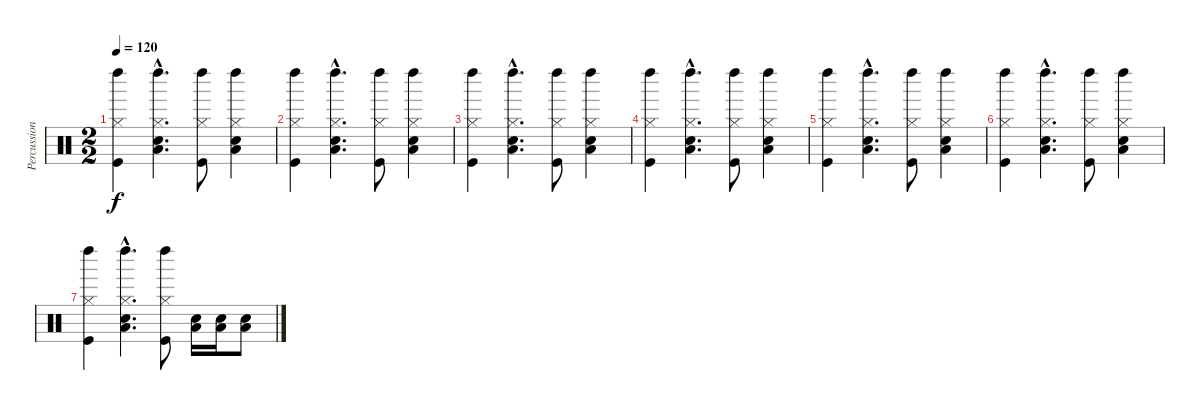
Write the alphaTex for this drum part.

\track ("Percussions" "Percussion") {instrument percussion}
\staff {score}
\articulation defaults
\ts (2 2)
\tempo 120
\clef neutral
\ks c
("Hi-Hat (closed)" "Left Maraca (hit)" "Kick (hit)").4{dy f} ("Hi-Hat (closed)"{hac} "Left Maraca (hit)"{hac} "Low Floor Tom (hit)"{hac} "Hand Clap (hit)"{hac}).4{d} ("Hi-Hat (closed)" "Left Maraca (hit)" "Kick (hit)").8 ("Hi-Hat (closed)" "Left Maraca (hit)" "Low Floor Tom (hit)" "Hand Clap (hit)").4 |
("Hi-Hat (closed)" "Left Maraca (hit)" "Kick (hit)").4 ("Hi-Hat (closed)"{hac} "Left Maraca (hit)"{hac} "Low Floor Tom (hit)"{hac} "Hand Clap (hit)"{hac}).4{d} ("Hi-Hat (closed)" "Left Maraca (hit)" "Kick (hit)").8 ("Hi-Hat (closed)" "Left Maraca (hit)" "Low Floor Tom (hit)" "Hand Clap (hit)").4 |
("Hi-Hat (closed)" "Left Maraca (hit)" "Kick (hit)").4 ("Hi-Hat (closed)"{hac} "Left Maraca (hit)"{hac} "Low Floor Tom (hit)"{hac} "Hand Clap (hit)"{hac}).4{d} ("Hi-Hat (closed)" "Left Maraca (hit)" "Kick (hit)").8 ("Hi-Hat (closed)" "Left Maraca (hit)" "Low Floor Tom (hit)" "Hand Clap (hit)").4 |
("Hi-Hat (closed)" "Left Maraca (hit)" "Kick (hit)").4 ("Hi-Hat (closed)"{hac} "Left Maraca (hit)"{hac} "Low Floor Tom (hit)"{hac} "Hand Clap (hit)"{hac}).4{d} ("Hi-Hat (closed)" "Left Maraca (hit)" "Kick (hit)").8 ("Hi-Hat (closed)" "Left Maraca (hit)" "Low Floor Tom (hit)" "Hand Clap (hit)").4 |
("Hi-Hat (closed)" "Left Maraca (hit)" "Kick (hit)").4 ("Hi-Hat (closed)"{hac} "Left Maraca (hit)"{hac} "Low Floor Tom (hit)"{hac} "Hand Clap (hit)"{hac}).4{d} ("Hi-Hat (closed)" "Left Maraca (hit)" "Kick (hit)").8 ("Hi-Hat (closed)" "Left Maraca (hit)" "Low Floor Tom (hit)" "Hand Clap (hit)").4 |
("Hi-Hat (closed)" "Left Maraca (hit)" "Kick (hit)").4 ("Hi-Hat (closed)"{hac} "Left Maraca (hit)"{hac} "Low Floor Tom (hit)"{hac} "Hand Clap (hit)"{hac}).4{d} ("Hi-Hat (closed)" "Left Maraca (hit)" "Kick (hit)").8 ("Hi-Hat (closed)" "Left Maraca (hit)" "Low Floor Tom (hit)" "Hand Clap (hit)").4 |
("Hi-Hat (closed)" "Left Maraca (hit)" "Kick (hit)").4 ("Hi-Hat (closed)"{hac} "Left Maraca (hit)"{hac} "Low Floor Tom (hit)"{hac} "Hand Clap (hit)"{hac}).4{d} ("Hi-Hat (closed)" "Left Maraca (hit)" "Kick (hit)").8 ("Low Floor Tom (hit)" "Hand Clap (hit)").16 ("Low Floor Tom (hit)" "Hand Clap (hit)").16 ("Low Floor Tom (hit)" "Hand Clap (hit)").8
